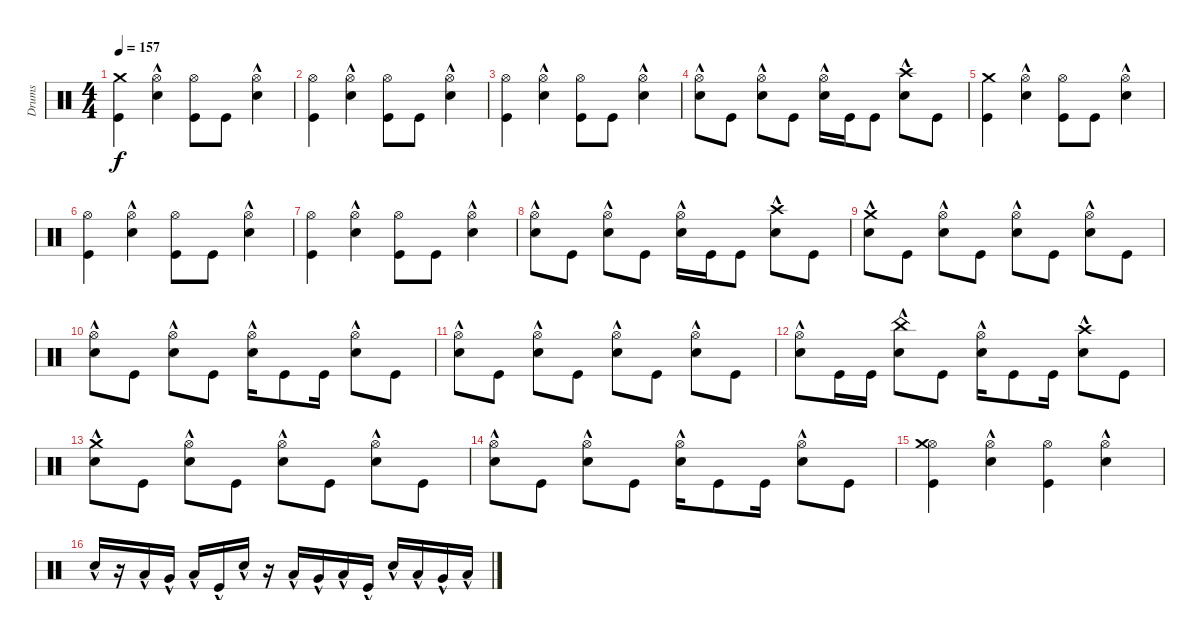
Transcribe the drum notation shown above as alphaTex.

\track ("Drums" "Drums") {solo instrument percussion}
\staff {score}
\articulation defaults
\ts (4 4)
\tempo 157
\clef neutral
\ks c
("Crash medium (hit)" "Kick (hit)").4{dy f} ("Snare (hit) 2"{hac} "Hi-Hat (open)").4 ("Kick (hit)" "Hi-Hat (open)").8 "Kick (hit)".8 ("Snare (hit) 2"{hac} "Hi-Hat (open)").4 |
("Kick (hit)" "Hi-Hat (open)").4 ("Snare (hit) 2"{hac} "Hi-Hat (open)").4 ("Kick (hit)" "Hi-Hat (open)").8 "Kick (hit)".8 ("Snare (hit) 2"{hac} "Hi-Hat (open)").4 |
("Kick (hit)" "Hi-Hat (open)").4 ("Snare (hit) 2"{hac} "Hi-Hat (open)").4 ("Kick (hit)" "Hi-Hat (open)").8 "Kick (hit)".8 ("Snare (hit) 2"{hac} "Hi-Hat (open)").4 |
("Snare (hit) 2"{hac} "Hi-Hat (open)").8 "Kick (hit)".8 ("Snare (hit) 2"{hac} "Hi-Hat (open)").8 "Kick (hit)".8 ("Snare (hit) 2"{hac} "Hi-Hat (open)").16 "Kick (hit)".16 "Kick (hit)".8 ("Snare (hit) 2"{hac} "Crash high (hit)"{hac}).8 "Kick (hit)".8 |
("Crash medium (hit)" "Kick (hit)").4 ("Snare (hit) 2"{hac} "Hi-Hat (open)").4 ("Kick (hit)" "Hi-Hat (open)").8 "Kick (hit)".8 ("Snare (hit) 2"{hac} "Hi-Hat (open)").4 |
("Kick (hit)" "Hi-Hat (open)").4 ("Snare (hit) 2"{hac} "Hi-Hat (open)").4 ("Kick (hit)" "Hi-Hat (open)").8 "Kick (hit)".8 ("Snare (hit) 2"{hac} "Hi-Hat (open)").4 |
("Kick (hit)" "Hi-Hat (open)").4 ("Snare (hit) 2"{hac} "Hi-Hat (open)").4 ("Kick (hit)" "Hi-Hat (open)").8 "Kick (hit)".8 ("Snare (hit) 2"{hac} "Hi-Hat (open)").4 |
("Snare (hit) 2"{hac} "Hi-Hat (open)").8 "Kick (hit)".8 ("Snare (hit) 2"{hac} "Hi-Hat (open)").8 "Kick (hit)".8 ("Snare (hit) 2"{hac} "Hi-Hat (open)").16 "Kick (hit)".16 "Kick (hit)".8 ("Snare (hit) 2"{hac} "Crash high (hit)"{hac}).8 "Kick (hit)".8 |
("Snare (hit) 2"{hac} "Crash medium (hit)").8 "Kick (hit)".8 ("Snare (hit) 2"{hac} "Hi-Hat (open)").8 "Kick (hit)".8 ("Snare (hit) 2"{hac} "Hi-Hat (open)").8 "Kick (hit)".8 ("Snare (hit) 2"{hac} "Hi-Hat (open)").8 "Kick (hit)".8 |
("Snare (hit) 2"{hac} "Hi-Hat (open)").8 "Kick (hit)".8 ("Snare (hit) 2"{hac} "Hi-Hat (open)").8 "Kick (hit)".8 ("Snare (hit) 2"{hac} "Hi-Hat (open)").16 "Kick (hit)".8 "Kick (hit)".16 ("Snare (hit) 2"{hac} "Hi-Hat (open)").8 "Kick (hit)".8 |
("Snare (hit) 2"{hac} "Hi-Hat (open)").8 "Kick (hit)".8 ("Snare (hit) 2"{hac} "Hi-Hat (open)").8 "Kick (hit)".8 ("Snare (hit) 2"{hac} "Hi-Hat (open)").8 "Kick (hit)".8 ("Snare (hit) 2"{hac} "Hi-Hat (open)").8 "Kick (hit)".8 |
("Snare (hit) 2"{hac} "Hi-Hat (open)").8 "Kick (hit)".16 "Kick (hit)".16 ("Snare (hit) 2"{hac} "China (hit)"{hac}).8 "Kick (hit)".8 ("Snare (hit) 2"{hac} "Hi-Hat (open)").16 "Kick (hit)".8 "Kick (hit)".16 ("Snare (hit) 2"{hac} "Crash high (hit)"{hac}).8 "Kick (hit)".8 |
("Snare (hit) 2"{hac} "Crash medium (hit)").8 "Kick (hit)".8 ("Snare (hit) 2"{hac} "Hi-Hat (open)").8 "Kick (hit)".8 ("Snare (hit) 2"{hac} "Hi-Hat (open)").8 "Kick (hit)".8 ("Snare (hit) 2"{hac} "Hi-Hat (open)").8 "Kick (hit)".8 |
("Snare (hit) 2"{hac} "Hi-Hat (open)").8 "Kick (hit)".8 ("Snare (hit) 2"{hac} "Hi-Hat (open)").8 "Kick (hit)".8 ("Snare (hit) 2"{hac} "Hi-Hat (open)").16 "Kick (hit)".8 "Kick (hit)".16 ("Snare (hit) 2"{hac} "Hi-Hat (open)").8 "Kick (hit)".8 |
("Kick (hit)" "Hi-Hat (open)" "Crash medium (hit)").4 ("Snare (hit) 2"{hac} "Hi-Hat (open)").4 ("Kick (hit)" "Hi-Hat (open)").4 ("Snare (hit) 2"{hac} "Hi-Hat (open)").4 |
"Snare (hit) 2"{hac}.16 r.16 "Low Tom (hit)"{hac}.16 "Very Low Tom (hit)"{hac}.16 "Low Floor Tom (hit)"{hac}.16 "Kick (hit)"{hac}.16 "Snare (hit) 2"{hac}.16 r.16 "Low Tom (hit)"{hac}.16 "Very Low Tom (hit)"{hac}.16 "Low Floor Tom (hit)"{hac}.16 "Kick (hit)"{hac}.16 "Snare (hit) 2"{hac}.16 "Low Tom (hit)"{hac}.16 "Very Low Tom (hit)"{hac}.16 "Low Floor Tom (hit)"{hac}.16
